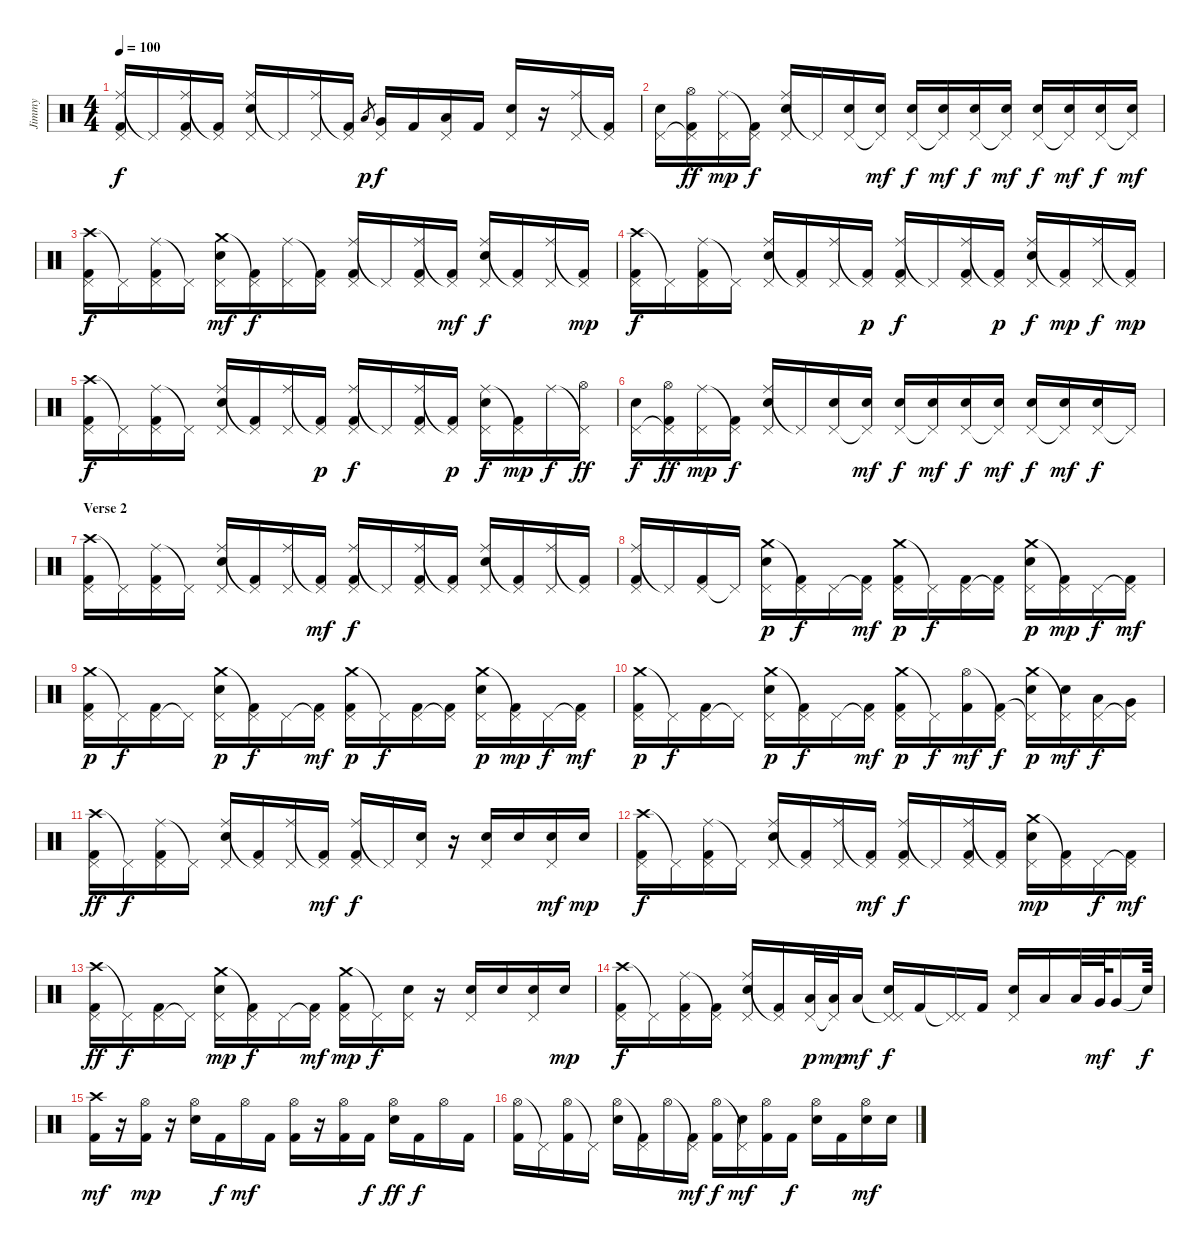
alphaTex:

\track ("Jimmy" "Jimmy") {instrument percussion}
\staff {score}
\articulation defaults
\ts (4 4)
\tempo 100
\clef neutral
\ks c
("Ride (middle)" "Pedal Hi-Hat (hit)" "Kick (hit) 2").16{dy f} "Pedal Hi-Hat (hit)"{t}.16 ("Ride (middle)" "Pedal Hi-Hat (hit)" "Kick (hit) 2").16 ("Pedal Hi-Hat (hit)"{t} "Kick (hit) 2").16 ("Ride (middle)" "Pedal Hi-Hat (hit)" "Electric Snare (hit)").16 "Pedal Hi-Hat (hit)"{t}.16 ("Ride (middle)" "Pedal Hi-Hat (hit)").16 ("Pedal Hi-Hat (hit)"{t} "Kick (hit) 2").16 "Low Tom (hit)".8{gr dy p} ("Pedal Hi-Hat (hit)" "Very Low Tom (hit)").16{dy f} "Kick (hit) 2".16 ("Pedal Hi-Hat (hit)" "Low Floor Tom (hit)").16 "Kick (hit) 2".16 ("Pedal Hi-Hat (hit)" "Electric Snare (hit)").16 r.16 ("Ride (middle)" "Pedal Hi-Hat (hit)").16 ("Pedal Hi-Hat (hit)"{t} "Kick (hit) 2").16 |
("Pedal Hi-Hat (hit)" "Electric Snare (hit)").16 ("Pedal Hi-Hat (hit)"{t} "Hi-Hat (open)" "Kick (hit) 2").16{dy ff} ("Ride (middle)" "Pedal Hi-Hat (hit)").16{dy mp} ("Pedal Hi-Hat (hit)"{t} "Kick (hit) 2").16{dy f} ("Ride (middle)" "Pedal Hi-Hat (hit)" "Electric Snare (hit)").16 "Pedal Hi-Hat (hit)"{t}.16 ("Pedal Hi-Hat (hit)" "Electric Snare (hit)").16 ("Pedal Hi-Hat (hit)"{t} "Electric Snare (hit)").16{dy mf} ("Pedal Hi-Hat (hit)" "Electric Snare (hit)").16{dy f} ("Pedal Hi-Hat (hit)"{t} "Electric Snare (hit)").16{dy mf} ("Pedal Hi-Hat (hit)" "Electric Snare (hit)").16{dy f} ("Pedal Hi-Hat (hit)"{t} "Electric Snare (hit)").16{dy mf} ("Pedal Hi-Hat (hit)" "Electric Snare (hit)").16{dy f} ("Pedal Hi-Hat (hit)"{t} "Electric Snare (hit)").16{dy mf} ("Pedal Hi-Hat (hit)" "Electric Snare (hit)").16{dy f} ("Pedal Hi-Hat (hit)"{t} "Electric Snare (hit)").16{dy mf} |
("Crash high (hit)" "Pedal Hi-Hat (hit)" "Kick (hit) 2").16{dy f} "Pedal Hi-Hat (hit)"{t}.16 ("Ride (middle)" "Pedal Hi-Hat (hit)" "Kick (hit) 2").16 "Pedal Hi-Hat (hit)"{t}.16 ("Crash medium (hit)" "Pedal Hi-Hat (hit)" "Electric Snare (hit)").16{dy mf} ("Pedal Hi-Hat (hit)"{t} "Kick (hit) 2").16{dy f} ("Ride (middle)" "Pedal Hi-Hat (hit)").16 ("Pedal Hi-Hat (hit)"{t} "Kick (hit) 2").16 ("Ride (middle)" "Pedal Hi-Hat (hit)" "Kick (hit) 2").16 "Pedal Hi-Hat (hit)"{t}.16 ("Ride (middle)" "Pedal Hi-Hat (hit)" "Kick (hit) 2").16 ("Pedal Hi-Hat (hit)"{t} "Kick (hit) 2").16{dy mf} ("Ride (middle)" "Pedal Hi-Hat (hit)" "Electric Snare (hit)").16{dy f} ("Pedal Hi-Hat (hit)"{t} "Kick (hit) 2").16 ("Ride (middle)" "Pedal Hi-Hat (hit)").16 ("Pedal Hi-Hat (hit)"{t} "Kick (hit) 2").16{dy mp} |
("Crash high (hit)" "Pedal Hi-Hat (hit)" "Kick (hit) 2").16{dy f} "Pedal Hi-Hat (hit)"{t}.16 ("Ride (middle)" "Pedal Hi-Hat (hit)" "Kick (hit) 2").16 "Pedal Hi-Hat (hit)"{t}.16 ("Ride (middle)" "Pedal Hi-Hat (hit)" "Electric Snare (hit)").16 ("Pedal Hi-Hat (hit)"{t} "Kick (hit) 2").16 ("Ride (middle)" "Pedal Hi-Hat (hit)").16 ("Pedal Hi-Hat (hit)"{t} "Kick (hit) 2").16{dy p} ("Ride (middle)" "Pedal Hi-Hat (hit)" "Kick (hit) 2").16{dy f} "Pedal Hi-Hat (hit)"{t}.16 ("Ride (middle)" "Pedal Hi-Hat (hit)" "Kick (hit) 2").16 ("Pedal Hi-Hat (hit)"{t} "Kick (hit) 2").16{dy p} ("Ride (middle)" "Pedal Hi-Hat (hit)" "Electric Snare (hit)").16{dy f} ("Pedal Hi-Hat (hit)"{t} "Kick (hit) 2").16{dy mp} ("Ride (middle)" "Pedal Hi-Hat (hit)").16{dy f} ("Pedal Hi-Hat (hit)"{t} "Kick (hit) 2").16{dy mp} |
("Crash high (hit)" "Pedal Hi-Hat (hit)" "Kick (hit) 2").16{dy f} "Pedal Hi-Hat (hit)"{t}.16 ("Ride (middle)" "Pedal Hi-Hat (hit)" "Kick (hit) 2").16 "Pedal Hi-Hat (hit)"{t}.16 ("Ride (middle)" "Pedal Hi-Hat (hit)" "Electric Snare (hit)").16 ("Pedal Hi-Hat (hit)"{t} "Kick (hit) 2").16 ("Ride (middle)" "Pedal Hi-Hat (hit)").16 ("Pedal Hi-Hat (hit)"{t} "Kick (hit) 2").16{dy p} ("Ride (middle)" "Pedal Hi-Hat (hit)" "Kick (hit) 2").16{dy f} "Pedal Hi-Hat (hit)"{t}.16 ("Ride (middle)" "Pedal Hi-Hat (hit)" "Kick (hit) 2").16 ("Pedal Hi-Hat (hit)"{t} "Kick (hit) 2").16{dy p} ("Ride (middle)" "Pedal Hi-Hat (hit)" "Electric Snare (hit)").16{dy f} ("Pedal Hi-Hat (hit)"{t} "Kick (hit) 2").16{dy mp} "Ride (middle)".16{dy f} ("Pedal Hi-Hat (hit)"{t} "Hi-Hat (open)").16{dy ff} |
("Pedal Hi-Hat (hit)" "Electric Snare (hit)").16{dy f} ("Pedal Hi-Hat (hit)"{t} "Hi-Hat (open)" "Kick (hit) 2").16{dy ff} ("Ride (middle)" "Pedal Hi-Hat (hit)").16{dy mp} ("Pedal Hi-Hat (hit)"{t} "Kick (hit) 2").16{dy f} ("Ride (middle)" "Pedal Hi-Hat (hit)" "Electric Snare (hit)").16 "Pedal Hi-Hat (hit)"{t}.16 ("Pedal Hi-Hat (hit)" "Electric Snare (hit)").16 ("Pedal Hi-Hat (hit)"{t} "Electric Snare (hit)").16{dy mf} ("Pedal Hi-Hat (hit)" "Electric Snare (hit)").16{dy f} ("Pedal Hi-Hat (hit)"{t} "Electric Snare (hit)").16{dy mf} ("Pedal Hi-Hat (hit)" "Electric Snare (hit)").16{dy f} ("Pedal Hi-Hat (hit)"{t} "Electric Snare (hit)").16{dy mf} ("Pedal Hi-Hat (hit)" "Electric Snare (hit)").16{dy f} ("Pedal Hi-Hat (hit)"{t} "Electric Snare (hit)").16{dy mf} ("Pedal Hi-Hat (hit)" "Electric Snare (hit)").16{dy f} "Pedal Hi-Hat (hit)"{t}.16 |
\section ("" "Verse 2")
("Crash high (hit)" "Pedal Hi-Hat (hit)" "Kick (hit) 2").16 "Pedal Hi-Hat (hit)"{t}.16 ("Ride (middle)" "Pedal Hi-Hat (hit)" "Kick (hit) 2").16 "Pedal Hi-Hat (hit)"{t}.16 ("Ride (middle)" "Pedal Hi-Hat (hit)" "Electric Snare (hit)").16 ("Pedal Hi-Hat (hit)"{t} "Kick (hit) 2").16 ("Ride (middle)" "Pedal Hi-Hat (hit)").16 ("Pedal Hi-Hat (hit)"{t} "Kick (hit) 2").16{dy mf} ("Ride (middle)" "Pedal Hi-Hat (hit)" "Kick (hit) 2").16{dy f} "Pedal Hi-Hat (hit)"{t}.16 ("Ride (middle)" "Pedal Hi-Hat (hit)" "Kick (hit) 2").16 ("Pedal Hi-Hat (hit)"{t} "Kick (hit) 2").16 ("Ride (middle)" "Pedal Hi-Hat (hit)" "Electric Snare (hit)").16 ("Pedal Hi-Hat (hit)"{t} "Kick (hit) 2").16 ("Ride (middle)" "Pedal Hi-Hat (hit)").16 ("Pedal Hi-Hat (hit)"{t} "Kick (hit) 2").16 |
("Ride (middle)" "Pedal Hi-Hat (hit)" "Kick (hit) 2").16 "Pedal Hi-Hat (hit)"{t}.16 ("Pedal Hi-Hat (hit)" "Kick (hit) 2").16 "Pedal Hi-Hat (hit)"{t}.16 ("Crash medium (hit)" "Pedal Hi-Hat (hit)" "Electric Snare (hit)").16{dy p} ("Pedal Hi-Hat (hit)"{t} "Kick (hit) 2").16{dy f} "Pedal Hi-Hat (hit)".16 ("Pedal Hi-Hat (hit)"{t} "Kick (hit) 2").16{dy mf} ("Crash medium (hit)" "Pedal Hi-Hat (hit)" "Kick (hit) 2").16{dy p} "Pedal Hi-Hat (hit)"{t}.16{dy f} ("Pedal Hi-Hat (hit)" "Kick (hit) 2").16 ("Pedal Hi-Hat (hit)"{t} "Kick (hit) 2").16 ("Crash medium (hit)" "Pedal Hi-Hat (hit)" "Electric Snare (hit)").16{dy p} ("Pedal Hi-Hat (hit)"{t} "Kick (hit) 2").16{dy mp} "Pedal Hi-Hat (hit)".16{dy f} ("Pedal Hi-Hat (hit)"{t} "Kick (hit) 2").16{dy mf} |
("Crash medium (hit)" "Pedal Hi-Hat (hit)" "Kick (hit) 2").16{dy p} "Pedal Hi-Hat (hit)"{t}.16{dy f} ("Pedal Hi-Hat (hit)" "Kick (hit) 2").16 "Pedal Hi-Hat (hit)"{t}.16 ("Crash medium (hit)" "Pedal Hi-Hat (hit)" "Electric Snare (hit)").16{dy p} ("Pedal Hi-Hat (hit)"{t} "Kick (hit) 2").16{dy f} "Pedal Hi-Hat (hit)".16 ("Pedal Hi-Hat (hit)"{t} "Kick (hit) 2").16{dy mf} ("Crash medium (hit)" "Pedal Hi-Hat (hit)" "Kick (hit) 2").16{dy p} "Pedal Hi-Hat (hit)"{t}.16{dy f} ("Pedal Hi-Hat (hit)" "Kick (hit) 2").16 ("Pedal Hi-Hat (hit)"{t} "Kick (hit) 2").16 ("Crash medium (hit)" "Pedal Hi-Hat (hit)" "Electric Snare (hit)").16{dy p} ("Pedal Hi-Hat (hit)"{t} "Kick (hit) 2").16{dy mp} "Pedal Hi-Hat (hit)".16{dy f} ("Pedal Hi-Hat (hit)"{t} "Kick (hit) 2").16{dy mf} |
("Crash medium (hit)" "Pedal Hi-Hat (hit)" "Kick (hit) 2").16{dy p} "Pedal Hi-Hat (hit)"{t}.16{dy f} ("Pedal Hi-Hat (hit)" "Kick (hit) 2").16 "Pedal Hi-Hat (hit)"{t}.16 ("Crash medium (hit)" "Pedal Hi-Hat (hit)" "Electric Snare (hit)").16{dy p} ("Pedal Hi-Hat (hit)"{t} "Kick (hit) 2").16{dy f} "Pedal Hi-Hat (hit)".16 ("Pedal Hi-Hat (hit)"{t} "Kick (hit) 2").16{dy mf} ("Crash medium (hit)" "Pedal Hi-Hat (hit)" "Kick (hit) 2").16{dy p} "Pedal Hi-Hat (hit)"{t}.16{dy f} ("Hi-Hat (open)" "Kick (hit) 2").16{dy mf} ("Pedal Hi-Hat (hit)"{t} "Kick (hit) 2").16{dy f} ("Crash medium (hit)" "Pedal Hi-Hat (hit)"{t} "Electric Snare (hit)").16{dy p} ("Pedal Hi-Hat (hit)"{t} "Electric Snare (hit)").16{dy mf} ("Pedal Hi-Hat (hit)" "Low Tom (hit)").16{dy f} ("Pedal Hi-Hat (hit)"{t} "Very Low Tom (hit)").16 |
("Crash high (hit)" "Pedal Hi-Hat (hit)" "Kick (hit) 2").16{dy ff} "Pedal Hi-Hat (hit)"{t}.16{dy f} ("Ride (middle)" "Pedal Hi-Hat (hit)" "Kick (hit) 2").16 "Pedal Hi-Hat (hit)"{t}.16 ("Ride (middle)" "Pedal Hi-Hat (hit)" "Electric Snare (hit)").16 ("Pedal Hi-Hat (hit)"{t} "Kick (hit) 2").16 ("Ride (middle)" "Pedal Hi-Hat (hit)").16 ("Pedal Hi-Hat (hit)"{t} "Kick (hit) 2").16{dy mf} ("Ride (middle)" "Pedal Hi-Hat (hit)" "Kick (hit) 2").16{dy f} "Pedal Hi-Hat (hit)"{t}.16 ("Pedal Hi-Hat (hit)" "Electric Snare (hit)").16 r.16 ("Pedal Hi-Hat (hit)" "Electric Snare (hit)").16 "Electric Snare (hit)".16 ("Pedal Hi-Hat (hit)" "Electric Snare (hit)").16{dy mf} "Electric Snare (hit)".16{dy mp} |
("Crash high (hit)" "Pedal Hi-Hat (hit)" "Kick (hit) 2").16{dy f} "Pedal Hi-Hat (hit)"{t}.16 ("Ride (middle)" "Pedal Hi-Hat (hit)" "Kick (hit) 2").16 "Pedal Hi-Hat (hit)"{t}.16 ("Ride (middle)" "Pedal Hi-Hat (hit)" "Electric Snare (hit)").16 ("Pedal Hi-Hat (hit)"{t} "Kick (hit) 2").16 ("Ride (middle)" "Pedal Hi-Hat (hit)").16 ("Pedal Hi-Hat (hit)"{t} "Kick (hit) 2").16{dy mf} ("Ride (middle)" "Pedal Hi-Hat (hit)" "Kick (hit) 2").16{dy f} "Pedal Hi-Hat (hit)"{t}.16 ("Ride (middle)" "Pedal Hi-Hat (hit)" "Kick (hit) 2").16 ("Pedal Hi-Hat (hit)"{t} "Kick (hit) 2").16 ("Crash medium (hit)" "Pedal Hi-Hat (hit)" "Electric Snare (hit)").16{dy mp} ("Pedal Hi-Hat (hit)"{t} "Kick (hit) 2").16 "Pedal Hi-Hat (hit)".16{dy f} ("Pedal Hi-Hat (hit)"{t} "Kick (hit) 2").16{dy mf} |
("Crash high (hit)" "Pedal Hi-Hat (hit)" "Kick (hit) 2").16{dy ff} "Pedal Hi-Hat (hit)"{t}.16{dy f} ("Pedal Hi-Hat (hit)" "Kick (hit) 2").16 "Pedal Hi-Hat (hit)"{t}.16 ("Crash medium (hit)" "Pedal Hi-Hat (hit)" "Electric Snare (hit)").16{dy mp} ("Pedal Hi-Hat (hit)"{t} "Kick (hit) 2").16{dy f} "Pedal Hi-Hat (hit)".16 ("Pedal Hi-Hat (hit)"{t} "Kick (hit) 2").16{dy mf} ("Crash medium (hit)" "Pedal Hi-Hat (hit)" "Kick (hit) 2").16{dy mp} "Pedal Hi-Hat (hit)"{t}.16{dy f} ("Pedal Hi-Hat (hit)" "Electric Snare (hit)").16 r.16 ("Pedal Hi-Hat (hit)" "Electric Snare (hit)").16 "Electric Snare (hit)".16 ("Pedal Hi-Hat (hit)" "Electric Snare (hit)").16 "Electric Snare (hit)".16{dy mp} |
("Crash high (hit)" "Pedal Hi-Hat (hit)" "Kick (hit) 2").16{dy f} "Pedal Hi-Hat (hit)"{t}.16 ("Ride (middle)" "Pedal Hi-Hat (hit)" "Kick (hit) 2").16 ("Pedal Hi-Hat (hit)"{t} "Kick (hit) 2").16 ("Ride (middle)" "Pedal Hi-Hat (hit)" "Electric Snare (hit)").16 ("Pedal Hi-Hat (hit)"{t} "Kick (hit) 2").16 ("Pedal Hi-Hat (hit)" "Low Tom (hit)").32{dy p} ("Pedal Hi-Hat (hit)"{t} "Low Tom (hit)").32{dy mp} "Low Tom (hit)".16{dy mf} ("Pedal Hi-Hat (hit)"{t} "Pedal Hi-Hat (hit)" "Electric Snare (hit)").16{dy f} "Kick (hit) 2".16 ("Pedal Hi-Hat (hit)"{t} "Pedal Hi-Hat (hit)").16 "Kick (hit) 2".16 ("Pedal Hi-Hat (hit)" "Electric Snare (hit)").16 "Low Tom (hit)".16 "Low Tom (hit)".32 "Very Low Tom (hit)".64{dy mf} "Very Low Tom (hit)".16 "Snare (hit)"{t}.64{dy f} |
("Crash high (hit)" "Kick (hit) 2").16{dy mf} r.16 ("Hi-Hat (open)" "Kick (hit) 2").16{dy mp} r.16 ("Hi-Hat (open)" "Electric Snare (hit)").16 "Kick (hit) 2".16{dy f} "Hi-Hat (open)".16{dy mf} "Kick (hit) 2".16 ("Hi-Hat (open)" "Kick (hit) 2").16 r.16 ("Hi-Hat (open)" "Kick (hit) 2").16 "Kick (hit) 2".16{dy f} ("Hi-Hat (open)" "Electric Snare (hit)").16{dy ff} "Kick (hit) 2".16{dy f} "Hi-Hat (open)".16 "Kick (hit) 2".16 |
("Hi-Hat (open)" "Kick (hit) 2").16 "Pedal Hi-Hat (hit)"{t}.16 ("Hi-Hat (open)" "Kick (hit) 2").16 "Pedal Hi-Hat (hit)"{t}.16 ("Hi-Hat (open)" "Electric Snare (hit)").16 ("Pedal Hi-Hat (hit)"{t} "Kick (hit) 2").16 "Hi-Hat (open)".16 ("Pedal Hi-Hat (hit)"{t} "Kick (hit) 2").16{dy mf} ("Hi-Hat (open)" "Kick (hit) 2").16{dy f} ("Pedal Hi-Hat (hit)"{t} "Electric Snare (hit)").16{dy mf} ("Hi-Hat (open)" "Kick (hit) 2").16 "Kick (hit) 2".16{dy f} ("Hi-Hat (open)" "Electric Snare (hit)").16 "Kick (hit) 2".16 ("Hi-Hat (open)" "Electric Snare (hit)").16{dy mf} "Electric Snare (hit)".16
